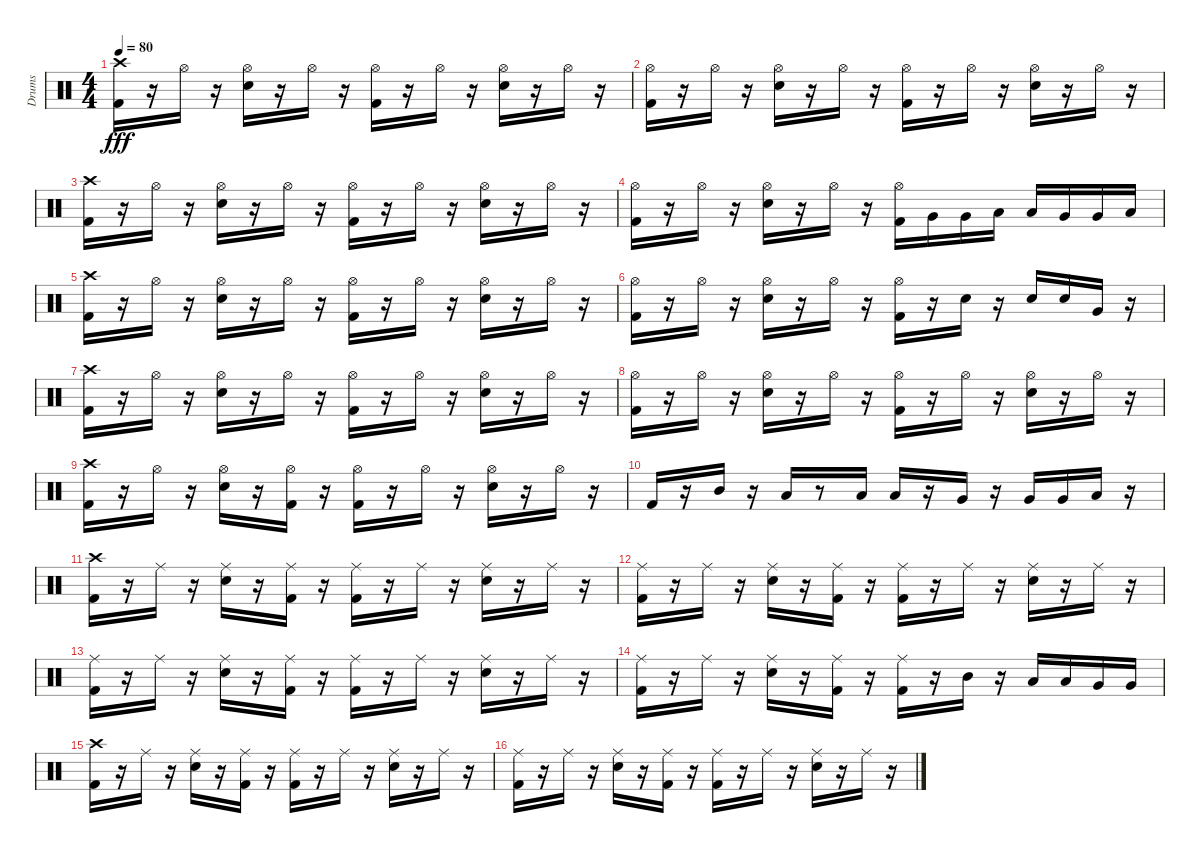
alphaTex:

\track ("Drums" "Drums") {instrument percussion}
\staff {score}
\articulation defaults
\ts (4 4)
\tempo 80
\clef neutral
\ks c
("Kick (hit) 2" "Crash high (hit)").16{dy fff} r.16 "Hi-Hat (open)".16 r.16 ("Electric Snare (hit)" "Hi-Hat (open)").16 r.16 "Hi-Hat (open)".16 r.16 ("Kick (hit) 2" "Hi-Hat (open)").16 r.16 "Hi-Hat (open)".16 r.16 ("Electric Snare (hit)" "Hi-Hat (open)").16 r.16 "Hi-Hat (open)".16 r.16 |
("Kick (hit) 2" "Hi-Hat (open)").16 r.16 "Hi-Hat (open)".16 r.16 ("Electric Snare (hit)" "Hi-Hat (open)").16 r.16 "Hi-Hat (open)".16 r.16 ("Kick (hit) 2" "Hi-Hat (open)").16 r.16 "Hi-Hat (open)".16 r.16 ("Electric Snare (hit)" "Hi-Hat (open)").16 r.16 "Hi-Hat (open)".16 r.16 |
("Kick (hit) 2" "Crash high (hit)").16 r.16 "Hi-Hat (open)".16 r.16 ("Electric Snare (hit)" "Hi-Hat (open)").16 r.16 "Hi-Hat (open)".16 r.16 ("Kick (hit) 2" "Hi-Hat (open)").16 r.16 "Hi-Hat (open)".16 r.16 ("Hi-Hat (open)" "Electric Snare (hit)").16 r.16 "Hi-Hat (open)".16 r.16 |
("Kick (hit) 2" "Hi-Hat (open)").16 r.16 "Hi-Hat (open)".16 r.16 ("Electric Snare (hit)" "Hi-Hat (open)").16 r.16 "Hi-Hat (open)".16 r.16 ("Kick (hit) 2" "Hi-Hat (open)").16 "Very Low Tom (hit)".16 "Very Low Tom (hit)".16 "Low Tom (hit)".16 "Low Tom (hit)".16 "Very Low Tom (hit)".16 "Very Low Tom (hit)".16 "Low Floor Tom (hit)".16 |
("Kick (hit) 2" "Crash high (hit)").16 r.16 "Hi-Hat (open)".16 r.16 ("Electric Snare (hit)" "Hi-Hat (open)").16 r.16 "Hi-Hat (open)".16 r.16 ("Kick (hit) 2" "Hi-Hat (open)").16 r.16 "Hi-Hat (open)".16 r.16 ("Electric Snare (hit)" "Hi-Hat (open)").16 r.16 "Hi-Hat (open)".16 r.16 |
("Kick (hit) 2" "Hi-Hat (open)").16 r.16 "Hi-Hat (open)".16 r.16 ("Electric Snare (hit)" "Hi-Hat (open)").16 r.16 "Hi-Hat (open)".16 r.16 ("Kick (hit) 2" "Hi-Hat (open)").16 r.16 "Electric Snare (hit)".16 r.16 "Electric Snare (hit)".16 "Electric Snare (hit)".16 "Very Low Tom (hit)".16 r.16 |
("Kick (hit) 2" "Crash high (hit)").16 r.16 "Hi-Hat (open)".16 r.16 ("Electric Snare (hit)" "Hi-Hat (open)").16 r.16 "Hi-Hat (open)".16 r.16 ("Kick (hit) 2" "Hi-Hat (open)").16 r.16 "Hi-Hat (open)".16 r.16 ("Electric Snare (hit)" "Hi-Hat (open)").16 r.16 "Hi-Hat (open)".16 r.16 |
("Kick (hit) 2" "Hi-Hat (open)").16 r.16 "Hi-Hat (open)".16 r.16 ("Electric Snare (hit)" "Hi-Hat (open)").16 r.16 "Hi-Hat (open)".16 r.16 ("Kick (hit) 2" "Hi-Hat (open)").16 r.16 "Hi-Hat (open)".16 r.16 ("Electric Snare (hit)" "Hi-Hat (open)").16 r.16 "Hi-Hat (open)".16 r.16 |
("Kick (hit) 2" "Crash high (hit)").16 r.16 "Hi-Hat (open)".16 r.16 ("Electric Snare (hit)" "Hi-Hat (open)").16 r.16 ("Kick (hit) 2" "Hi-Hat (open)").16 r.16 ("Kick (hit) 2" "Hi-Hat (open)").16 r.16 "Hi-Hat (open)".16 r.16 ("Electric Snare (hit)" "Hi-Hat (open)").16 r.16 "Hi-Hat (open)".16 r.16 |
"Kick (hit) 2".16 r.16 "Mid Tom (hit)".16 r.16 "Low Tom (hit)".16 r.8 "Low Tom (hit)".16 "Low Tom (hit)".16 r.16 "Very Low Tom (hit)".16 r.16 "Very Low Tom (hit)".16 "Very Low Tom (hit)".16 "Low Floor Tom (hit)".16 r.16 |
("Kick (hit) 2" "Crash high (hit)").16 r.16 "Ride (middle)".16 r.16 ("Electric Snare (hit)" "Ride (middle)").16 r.16 ("Kick (hit) 2" "Ride (middle)").16 r.16 ("Kick (hit) 2" "Ride (middle)").16 r.16 "Ride (middle)".16 r.16 ("Electric Snare (hit)" "Ride (middle)").16 r.16 "Ride (middle)".16 r.16 |
("Kick (hit) 2" "Ride (middle)").16 r.16 "Ride (middle)".16 r.16 ("Electric Snare (hit)" "Ride (middle)").16 r.16 ("Kick (hit) 2" "Ride (middle)").16 r.16 ("Kick (hit) 2" "Ride (middle)").16 r.16 "Ride (middle)".16 r.16 ("Electric Snare (hit)" "Ride (middle)").16 r.16 "Ride (middle)".16 r.16 |
("Kick (hit) 2" "Ride (middle)").16 r.16 "Ride (middle)".16 r.16 ("Electric Snare (hit)" "Ride (middle)").16 r.16 ("Kick (hit) 2" "Ride (middle)").16 r.16 ("Kick (hit) 2" "Ride (middle)").16 r.16 "Ride (middle)".16 r.16 ("Electric Snare (hit)" "Ride (middle)").16 r.16 "Ride (middle)".16 r.16 |
("Kick (hit) 2" "Ride (middle)").16 r.16 "Ride (middle)".16 r.16 ("Electric Snare (hit)" "Ride (middle)").16 r.16 ("Kick (hit) 2" "Ride (middle)").16 r.16 ("Kick (hit) 2" "Ride (middle)").16 r.16 "Mid Tom (hit)".16 r.16 "Low Tom (hit)".16 "Low Tom (hit)".16 "Very Low Tom (hit)".16 "Very Low Tom (hit)".16 |
("Kick (hit) 2" "Crash high (hit)").16 r.16 "Ride (middle)".16 r.16 ("Electric Snare (hit)" "Ride (middle)").16 r.16 ("Kick (hit) 2" "Ride (middle)").16 r.16 ("Kick (hit) 2" "Ride (middle)").16 r.16 "Ride (middle)".16 r.16 ("Electric Snare (hit)" "Ride (middle)").16 r.16 "Ride (middle)".16 r.16 |
("Kick (hit) 2" "Ride (middle)").16 r.16 "Ride (middle)".16 r.16 ("Electric Snare (hit)" "Ride (middle)").16 r.16 ("Kick (hit) 2" "Ride (middle)").16 r.16 ("Kick (hit) 2" "Ride (middle)").16 r.16 "Ride (middle)".16 r.16 ("Electric Snare (hit)" "Ride (middle)").16 r.16 "Ride (middle)".16 r.16
